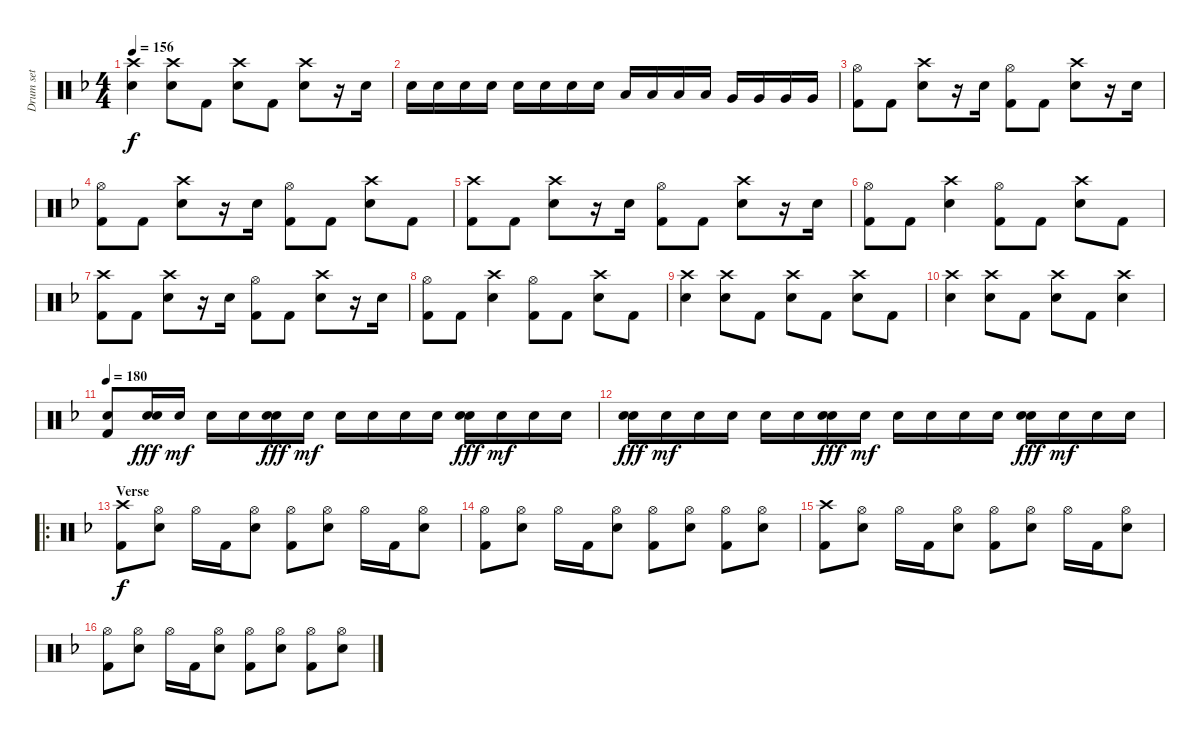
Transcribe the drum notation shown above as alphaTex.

\track ("Drum set" "Drum set") {instrument percussion}
\staff {score}
\articulation defaults
\ts (4 4)
\tempo 156
\clef neutral
\ks f
("Crash high (hit)" "Electric Snare (hit)").4{dy f} ("Crash high (hit)" "Electric Snare (hit)").8 "Kick (hit) 2".8 ("Crash high (hit)" "Electric Snare (hit)").8 "Kick (hit) 2".8 ("Crash high (hit)" "Electric Snare (hit)").8 r.16 "Electric Snare (hit)".16 |
"Electric Snare (hit)".16 "Electric Snare (hit)".16 "Electric Snare (hit)".16 "Electric Snare (hit)".16 "Electric Snare (hit)".16 "Electric Snare (hit)".16 "Electric Snare (hit)".16 "Electric Snare (hit)".16 "Low Tom (hit)".16 "Low Tom (hit)".16 "Low Tom (hit)".16 "Low Tom (hit)".16 "Very Low Tom (hit)".16 "Very Low Tom (hit)".16 "Very Low Tom (hit)".16 "Very Low Tom (hit)".16 |
("Hi-Hat (open)" "Kick (hit) 2").8 "Kick (hit) 2".8 ("Crash high (hit)" "Electric Snare (hit)").8 r.16 "Electric Snare (hit)".16 ("Hi-Hat (open)" "Kick (hit) 2").8 "Kick (hit) 2".8 ("Crash high (hit)" "Electric Snare (hit)").8 r.16 "Electric Snare (hit)".16 |
("Hi-Hat (open)" "Kick (hit) 2").8 "Kick (hit) 2".8 ("Crash high (hit)" "Electric Snare (hit)").8 r.16 "Electric Snare (hit)".16 ("Hi-Hat (open)" "Kick (hit) 2").8 "Kick (hit) 2".8 ("Crash high (hit)" "Electric Snare (hit)").8 "Kick (hit) 2".8 |
("Crash high (hit)" "Kick (hit) 2").8 "Kick (hit) 2".8 ("Crash high (hit)" "Electric Snare (hit)").8 r.16 "Electric Snare (hit)".16 ("Hi-Hat (open)" "Kick (hit) 2").8 "Kick (hit) 2".8 ("Crash high (hit)" "Electric Snare (hit)").8 r.16 "Electric Snare (hit)".16 |
("Hi-Hat (open)" "Kick (hit) 2").8 "Kick (hit) 2".8 ("Crash high (hit)" "Electric Snare (hit)").4 ("Hi-Hat (open)" "Kick (hit) 2").8 "Kick (hit) 2".8 ("Crash high (hit)" "Electric Snare (hit)").8 "Kick (hit) 2".8 |
("Crash high (hit)" "Kick (hit) 2").8 "Kick (hit) 2".8 ("Crash high (hit)" "Electric Snare (hit)").8 r.16 "Electric Snare (hit)".16 ("Hi-Hat (open)" "Kick (hit) 2").8 "Kick (hit) 2".8 ("Crash high (hit)" "Electric Snare (hit)").8 r.16 "Electric Snare (hit)".16 |
("Hi-Hat (open)" "Kick (hit) 2").8 "Kick (hit) 2".8 ("Crash high (hit)" "Electric Snare (hit)").4 ("Hi-Hat (open)" "Kick (hit) 2").8 "Kick (hit) 2".8 ("Crash high (hit)" "Electric Snare (hit)").8 "Kick (hit) 2".8 |
("Crash high (hit)" "Electric Snare (hit)").4 ("Crash high (hit)" "Electric Snare (hit)").8 "Kick (hit) 2".8 ("Crash high (hit)" "Electric Snare (hit)").8 "Kick (hit) 2".8 ("Crash high (hit)" "Electric Snare (hit)").8 "Kick (hit) 2".8 |
("Crash high (hit)" "Electric Snare (hit)").4 ("Crash high (hit)" "Electric Snare (hit)").8 "Kick (hit) 2".8 ("Crash high (hit)" "Electric Snare (hit)").8 "Kick (hit) 2".8 ("Crash high (hit)" "Electric Snare (hit)").4 |
\tempo 180
("Electric Snare (hit)" "Kick (hit) 2").8 ("Electric Snare (hit)" "Electric Snare (hit)").16{dy fff} "Electric Snare (hit)".16{dy mf} "Electric Snare (hit)".16 "Electric Snare (hit)".16 ("Electric Snare (hit)" "Electric Snare (hit)").16{dy fff} "Electric Snare (hit)".16{dy mf} "Electric Snare (hit)".16 "Electric Snare (hit)".16 "Electric Snare (hit)".16 "Electric Snare (hit)".16 ("Electric Snare (hit)" "Electric Snare (hit)").16{dy fff} "Electric Snare (hit)".16{dy mf} "Electric Snare (hit)".16 "Electric Snare (hit)".16 |
("Electric Snare (hit)" "Electric Snare (hit)").16{dy fff} "Electric Snare (hit)".16{dy mf} "Electric Snare (hit)".16 "Electric Snare (hit)".16 "Electric Snare (hit)".16 "Electric Snare (hit)".16 ("Electric Snare (hit)" "Electric Snare (hit)").16{dy fff} "Electric Snare (hit)".16{dy mf} "Electric Snare (hit)".16 "Electric Snare (hit)".16 "Electric Snare (hit)".16 "Electric Snare (hit)".16 ("Electric Snare (hit)" "Electric Snare (hit)").16{dy fff} "Electric Snare (hit)".16{dy mf} "Electric Snare (hit)".16 "Electric Snare (hit)".16 |
\ro
\section ("" "Verse")
("Crash high (hit)" "Kick (hit) 2").8{dy f} ("Hi-Hat (open)" "Electric Snare (hit)").8 "Hi-Hat (open)".16 "Kick (hit) 2".16 ("Hi-Hat (open)" "Electric Snare (hit)").8 ("Hi-Hat (open)" "Kick (hit) 2").8 ("Hi-Hat (open)" "Electric Snare (hit)").8 "Hi-Hat (open)".16 "Kick (hit) 2".16 ("Hi-Hat (open)" "Electric Snare (hit)").8 |
("Hi-Hat (open)" "Kick (hit) 2").8 ("Hi-Hat (open)" "Electric Snare (hit)").8 "Hi-Hat (open)".16 "Kick (hit) 2".16 ("Hi-Hat (open)" "Electric Snare (hit)").8 ("Hi-Hat (open)" "Kick (hit) 2").8 ("Hi-Hat (open)" "Electric Snare (hit)").8 ("Hi-Hat (open)" "Kick (hit) 2").8 ("Hi-Hat (open)" "Electric Snare (hit)").8 |
("Crash high (hit)" "Kick (hit) 2").8 ("Hi-Hat (open)" "Electric Snare (hit)").8 "Hi-Hat (open)".16 "Kick (hit) 2".16 ("Hi-Hat (open)" "Electric Snare (hit)").8 ("Hi-Hat (open)" "Kick (hit) 2").8 ("Hi-Hat (open)" "Electric Snare (hit)").8 "Hi-Hat (open)".16 "Kick (hit) 2".16 ("Hi-Hat (open)" "Electric Snare (hit)").8 |
("Hi-Hat (open)" "Kick (hit) 2").8 ("Hi-Hat (open)" "Electric Snare (hit)").8 "Hi-Hat (open)".16 "Kick (hit) 2".16 ("Hi-Hat (open)" "Electric Snare (hit)").8 ("Hi-Hat (open)" "Kick (hit) 2").8 ("Hi-Hat (open)" "Electric Snare (hit)").8 ("Hi-Hat (open)" "Kick (hit) 2").8 ("Hi-Hat (open)" "Electric Snare (hit)").8
